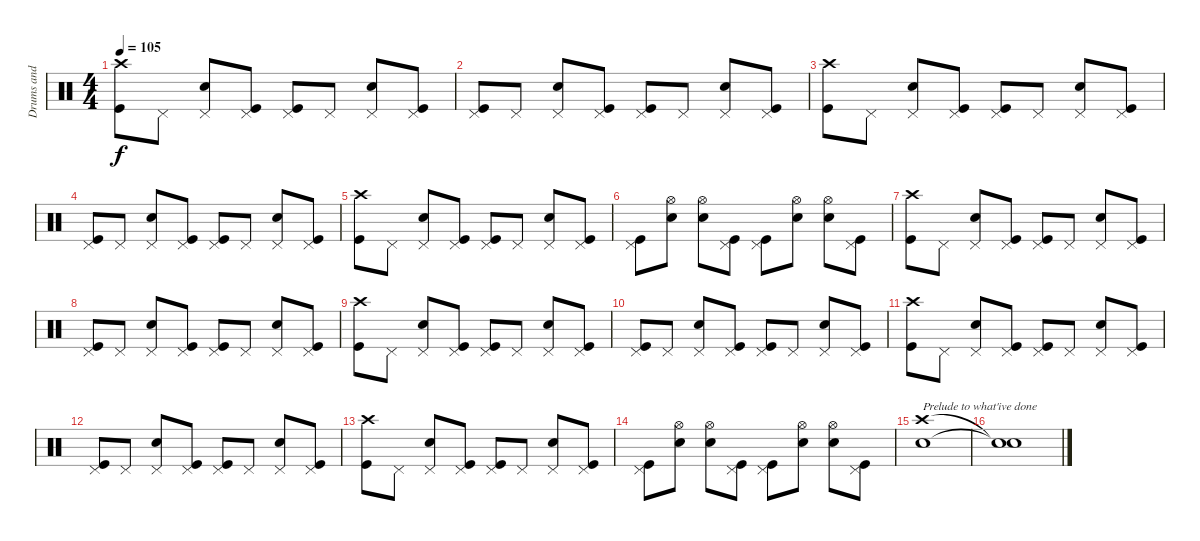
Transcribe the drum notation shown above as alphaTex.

\track ("Drums and loops" "Drums and ") {instrument percussion}
\staff {score}
\articulation defaults
\ts (4 4)
\tempo 105
\clef neutral
\ks c
("Crash high (hit)" "Kick (hit)").8{dy f} "Pedal Hi-Hat (hit)".8 ("Pedal Hi-Hat (hit)" "Electric Snare (hit)").8 ("Pedal Hi-Hat (hit)" "Kick (hit)").8 ("Pedal Hi-Hat (hit)" "Kick (hit)").8 "Pedal Hi-Hat (hit)".8 ("Pedal Hi-Hat (hit)" "Electric Snare (hit)").8 ("Pedal Hi-Hat (hit)" "Kick (hit)").8 |
("Pedal Hi-Hat (hit)" "Kick (hit)").8 "Pedal Hi-Hat (hit)".8 ("Electric Snare (hit)" "Pedal Hi-Hat (hit)").8 ("Pedal Hi-Hat (hit)" "Kick (hit)").8 ("Pedal Hi-Hat (hit)" "Kick (hit)").8 "Pedal Hi-Hat (hit)".8 ("Pedal Hi-Hat (hit)" "Electric Snare (hit)").8 ("Pedal Hi-Hat (hit)" "Kick (hit)").8 |
("Crash high (hit)" "Kick (hit)").8 "Pedal Hi-Hat (hit)".8 ("Pedal Hi-Hat (hit)" "Electric Snare (hit)").8 ("Pedal Hi-Hat (hit)" "Kick (hit)").8 ("Pedal Hi-Hat (hit)" "Kick (hit)").8 "Pedal Hi-Hat (hit)".8 ("Pedal Hi-Hat (hit)" "Electric Snare (hit)").8 ("Pedal Hi-Hat (hit)" "Kick (hit)").8 |
("Pedal Hi-Hat (hit)" "Kick (hit)").8 "Pedal Hi-Hat (hit)".8 ("Electric Snare (hit)" "Pedal Hi-Hat (hit)").8 ("Pedal Hi-Hat (hit)" "Kick (hit)").8 ("Pedal Hi-Hat (hit)" "Kick (hit)").8 "Pedal Hi-Hat (hit)".8 ("Pedal Hi-Hat (hit)" "Electric Snare (hit)").8 ("Pedal Hi-Hat (hit)" "Kick (hit)").8 |
("Crash high (hit)" "Kick (hit)").8 "Pedal Hi-Hat (hit)".8 ("Pedal Hi-Hat (hit)" "Electric Snare (hit)").8 ("Pedal Hi-Hat (hit)" "Kick (hit)").8 ("Pedal Hi-Hat (hit)" "Kick (hit)").8 "Pedal Hi-Hat (hit)".8 ("Pedal Hi-Hat (hit)" "Electric Snare (hit)").8 ("Pedal Hi-Hat (hit)" "Kick (hit)").8 |
("Pedal Hi-Hat (hit)" "Kick (hit)").8 ("Hi-Hat (open)" "Electric Snare (hit)").8 ("Hi-Hat (open)" "Electric Snare (hit)").8 ("Pedal Hi-Hat (hit)" "Kick (hit)").8 ("Pedal Hi-Hat (hit)" "Kick (hit)").8 ("Hi-Hat (open)" "Electric Snare (hit)").8 ("Hi-Hat (open)" "Electric Snare (hit)").8 ("Pedal Hi-Hat (hit)" "Kick (hit)").8 |
("Crash high (hit)" "Kick (hit)").8 "Pedal Hi-Hat (hit)".8 ("Pedal Hi-Hat (hit)" "Electric Snare (hit)").8 ("Pedal Hi-Hat (hit)" "Kick (hit)").8 ("Pedal Hi-Hat (hit)" "Kick (hit)").8 "Pedal Hi-Hat (hit)".8 ("Pedal Hi-Hat (hit)" "Electric Snare (hit)").8 ("Pedal Hi-Hat (hit)" "Kick (hit)").8 |
("Pedal Hi-Hat (hit)" "Kick (hit)").8 "Pedal Hi-Hat (hit)".8 ("Electric Snare (hit)" "Pedal Hi-Hat (hit)").8 ("Pedal Hi-Hat (hit)" "Kick (hit)").8 ("Pedal Hi-Hat (hit)" "Kick (hit)").8 "Pedal Hi-Hat (hit)".8 ("Pedal Hi-Hat (hit)" "Electric Snare (hit)").8 ("Pedal Hi-Hat (hit)" "Kick (hit)").8 |
("Crash high (hit)" "Kick (hit)").8 "Pedal Hi-Hat (hit)".8 ("Pedal Hi-Hat (hit)" "Electric Snare (hit)").8 ("Pedal Hi-Hat (hit)" "Kick (hit)").8 ("Pedal Hi-Hat (hit)" "Kick (hit)").8 "Pedal Hi-Hat (hit)".8 ("Pedal Hi-Hat (hit)" "Electric Snare (hit)").8 ("Pedal Hi-Hat (hit)" "Kick (hit)").8 |
("Pedal Hi-Hat (hit)" "Kick (hit)").8 "Pedal Hi-Hat (hit)".8 ("Electric Snare (hit)" "Pedal Hi-Hat (hit)").8 ("Pedal Hi-Hat (hit)" "Kick (hit)").8 ("Pedal Hi-Hat (hit)" "Kick (hit)").8 "Pedal Hi-Hat (hit)".8 ("Pedal Hi-Hat (hit)" "Electric Snare (hit)").8 ("Pedal Hi-Hat (hit)" "Kick (hit)").8 |
("Crash high (hit)" "Kick (hit)").8 "Pedal Hi-Hat (hit)".8 ("Pedal Hi-Hat (hit)" "Electric Snare (hit)").8 ("Pedal Hi-Hat (hit)" "Kick (hit)").8 ("Pedal Hi-Hat (hit)" "Kick (hit)").8 "Pedal Hi-Hat (hit)".8 ("Pedal Hi-Hat (hit)" "Electric Snare (hit)").8 ("Pedal Hi-Hat (hit)" "Kick (hit)").8 |
("Pedal Hi-Hat (hit)" "Kick (hit)").8 "Pedal Hi-Hat (hit)".8 ("Electric Snare (hit)" "Pedal Hi-Hat (hit)").8 ("Pedal Hi-Hat (hit)" "Kick (hit)").8 ("Pedal Hi-Hat (hit)" "Kick (hit)").8 "Pedal Hi-Hat (hit)".8 ("Pedal Hi-Hat (hit)" "Electric Snare (hit)").8 ("Pedal Hi-Hat (hit)" "Kick (hit)").8 |
("Crash high (hit)" "Kick (hit)").8 "Pedal Hi-Hat (hit)".8 ("Pedal Hi-Hat (hit)" "Electric Snare (hit)").8 ("Pedal Hi-Hat (hit)" "Kick (hit)").8 ("Pedal Hi-Hat (hit)" "Kick (hit)").8 "Pedal Hi-Hat (hit)".8 ("Pedal Hi-Hat (hit)" "Electric Snare (hit)").8 ("Pedal Hi-Hat (hit)" "Kick (hit)").8 |
("Pedal Hi-Hat (hit)" "Kick (hit)").8 ("Hi-Hat (open)" "Electric Snare (hit)").8 ("Hi-Hat (open)" "Electric Snare (hit)").8 ("Pedal Hi-Hat (hit)" "Kick (hit)").8 ("Pedal Hi-Hat (hit)" "Kick (hit)").8 ("Hi-Hat (open)" "Electric Snare (hit)").8 ("Hi-Hat (open)" "Electric Snare (hit)").8 ("Pedal Hi-Hat (hit)" "Kick (hit)").8 |
("Crash high (hit)" "Electric Snare (hit)").1{txt "Prelude to what'ive done"} |
("Snare (hit)"{t} "Snare (hit)"{t}).1
